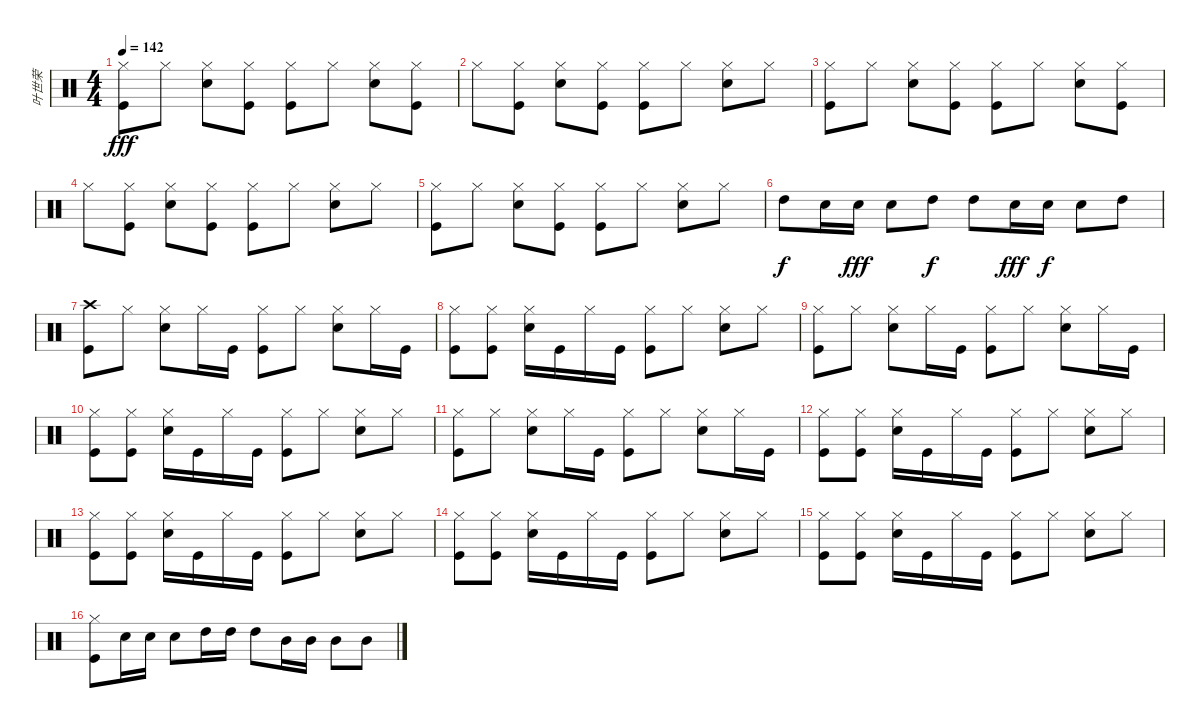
\track ("叶世荣" "叶世荣") {instrument percussion}
\staff {score}
\articulation defaults
\ts (4 4)
\tempo 142
\clef neutral
\ks c
("Hi-Hat (closed)" "Kick (hit)").8{dy fff} "Hi-Hat (closed)".8 ("Hi-Hat (closed)" "Snare (hit) 2").8 ("Hi-Hat (closed)" "Kick (hit)").8 ("Hi-Hat (closed)" "Kick (hit)").8 "Hi-Hat (closed)".8 ("Hi-Hat (closed)" "Snare (hit) 2").8 ("Hi-Hat (closed)" "Kick (hit)").8 |
"Hi-Hat (closed)".8 ("Hi-Hat (closed)" "Kick (hit)").8 ("Hi-Hat (closed)" "Snare (hit) 2").8 ("Hi-Hat (closed)" "Kick (hit)").8 ("Hi-Hat (closed)" "Kick (hit)").8 "Hi-Hat (closed)".8 ("Hi-Hat (closed)" "Snare (hit) 2").8 "Hi-Hat (closed)".8 |
("Hi-Hat (closed)" "Kick (hit)").8 "Hi-Hat (closed)".8 ("Hi-Hat (closed)" "Snare (hit) 2").8 ("Hi-Hat (closed)" "Kick (hit)").8 ("Hi-Hat (closed)" "Kick (hit)").8 "Hi-Hat (closed)".8 ("Hi-Hat (closed)" "Snare (hit) 2").8 ("Hi-Hat (closed)" "Kick (hit)").8 |
"Hi-Hat (closed)".8 ("Hi-Hat (closed)" "Kick (hit)").8 ("Hi-Hat (closed)" "Snare (hit) 2").8 ("Hi-Hat (closed)" "Kick (hit)").8 ("Hi-Hat (closed)" "Kick (hit)").8 "Hi-Hat (closed)".8 ("Hi-Hat (closed)" "Snare (hit) 2").8 "Hi-Hat (closed)".8 |
("Hi-Hat (closed)" "Kick (hit)").8 "Hi-Hat (closed)".8 ("Hi-Hat (closed)" "Snare (hit) 2").8 ("Hi-Hat (closed)" "Kick (hit)").8 ("Hi-Hat (closed)" "Kick (hit)").8 "Hi-Hat (closed)".8 ("Hi-Hat (closed)" "Snare (hit) 2").8 "Hi-Hat (closed)".8 |
"High Tom (hit)".8{dy f} "Snare (hit) 2".16 "Snare (hit) 2".16{dy fff} "Snare (hit) 2".8 "High Tom (hit)".8{dy f} "High Tom (hit)".8 "Snare (hit) 2".16{dy fff} "Snare (hit) 2".16{dy f} "Snare (hit) 2".8 "High Tom (hit)".8 |
("Crash high (hit)" "Kick (hit)").8 "Hi-Hat (closed)".8 ("Hi-Hat (closed)" "Snare (hit) 2").8 "Hi-Hat (closed)".16 "Kick (hit)".16 ("Hi-Hat (closed)" "Kick (hit)").8 "Hi-Hat (closed)".8 ("Hi-Hat (closed)" "Snare (hit) 2").8 "Hi-Hat (closed)".16 "Kick (hit)".16 |
("Hi-Hat (closed)" "Kick (hit)").8 ("Hi-Hat (closed)" "Kick (hit)").8 ("Hi-Hat (closed)" "Snare (hit) 2").16 "Kick (hit)".16 "Hi-Hat (closed)".16 "Kick (hit)".16 ("Hi-Hat (closed)" "Kick (hit)").8 "Hi-Hat (closed)".8 ("Hi-Hat (closed)" "Snare (hit) 2").8 "Hi-Hat (closed)".8 |
("Hi-Hat (closed)" "Kick (hit)").8 "Hi-Hat (closed)".8 ("Hi-Hat (closed)" "Snare (hit) 2").8 "Hi-Hat (closed)".16 "Kick (hit)".16 ("Hi-Hat (closed)" "Kick (hit)").8 "Hi-Hat (closed)".8 ("Hi-Hat (closed)" "Snare (hit) 2").8 "Hi-Hat (closed)".16 "Kick (hit)".16 |
("Hi-Hat (closed)" "Kick (hit)").8 ("Hi-Hat (closed)" "Kick (hit)").8 ("Hi-Hat (closed)" "Snare (hit) 2").16 "Kick (hit)".16 "Hi-Hat (closed)".16 "Kick (hit)".16 ("Hi-Hat (closed)" "Kick (hit)").8 "Hi-Hat (closed)".8 ("Hi-Hat (closed)" "Snare (hit) 2").8 "Hi-Hat (closed)".8 |
("Hi-Hat (closed)" "Kick (hit)").8 "Hi-Hat (closed)".8 ("Hi-Hat (closed)" "Snare (hit) 2").8 "Hi-Hat (closed)".16 "Kick (hit)".16 ("Hi-Hat (closed)" "Kick (hit)").8 "Hi-Hat (closed)".8 ("Hi-Hat (closed)" "Snare (hit) 2").8 "Hi-Hat (closed)".16 "Kick (hit)".16 |
("Hi-Hat (closed)" "Kick (hit)").8 ("Hi-Hat (closed)" "Kick (hit)").8 ("Hi-Hat (closed)" "Snare (hit) 2").16 "Kick (hit)".16 "Hi-Hat (closed)".16 "Kick (hit)".16 ("Hi-Hat (closed)" "Kick (hit)").8 "Hi-Hat (closed)".8 ("Hi-Hat (closed)" "Snare (hit) 2").8 "Hi-Hat (closed)".8 |
("Hi-Hat (closed)" "Kick (hit)").8 ("Hi-Hat (closed)" "Kick (hit)").8 ("Hi-Hat (closed)" "Snare (hit) 2").16 "Kick (hit)".16 "Hi-Hat (closed)".16 "Kick (hit)".16 ("Hi-Hat (closed)" "Kick (hit)").8 "Hi-Hat (closed)".8 ("Hi-Hat (closed)" "Snare (hit) 2").8 "Hi-Hat (closed)".8 |
("Hi-Hat (closed)" "Kick (hit)").8 ("Hi-Hat (closed)" "Kick (hit)").8 ("Hi-Hat (closed)" "Snare (hit) 2").16 "Kick (hit)".16 "Hi-Hat (closed)".16 "Kick (hit)".16 ("Hi-Hat (closed)" "Kick (hit)").8 "Hi-Hat (closed)".8 ("Hi-Hat (closed)" "Snare (hit) 2").8 "Hi-Hat (closed)".8 |
("Hi-Hat (closed)" "Kick (hit)").8 ("Hi-Hat (closed)" "Kick (hit)").8 ("Hi-Hat (closed)" "Snare (hit) 2").16 "Kick (hit)".16 "Hi-Hat (closed)".16 "Kick (hit)".16 ("Hi-Hat (closed)" "Kick (hit)").8 "Hi-Hat (closed)".8 ("Hi-Hat (closed)" "Snare (hit) 2").8 "Hi-Hat (closed)".8 |
("Hi-Hat (closed)" "Kick (hit)").8 "Snare (hit) 2".16 "Snare (hit) 2".16 "Snare (hit) 2".8 "High Tom (hit)".16 "High Tom (hit)".16 "High Tom (hit)".8 "Mid Tom (hit)".16 "Mid Tom (hit)".16 "Mid Tom (hit)".8 "Mid Tom (hit)".8
